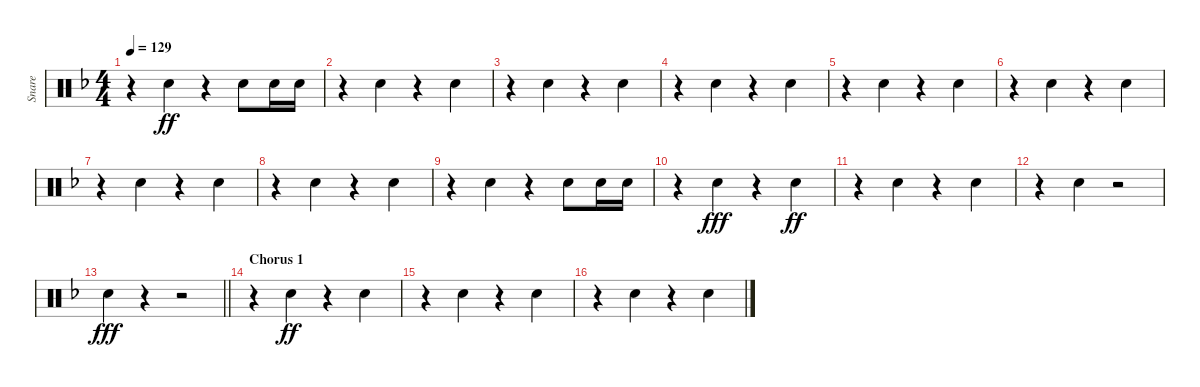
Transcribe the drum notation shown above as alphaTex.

\track ("Snare" "Snare") {instrument percussion}
\staff {score}
\articulation defaults
\ts (4 4)
\tempo 129
\clef neutral
\ks dminor
r.4{dy ff} "Electric Snare (hit)".4 r.4 "Electric Snare (hit)".8 "Electric Snare (hit)".16 "Electric Snare (hit)".16 |
r.4 "Electric Snare (hit)".4 r.4 "Electric Snare (hit)".4 |
r.4 "Electric Snare (hit)".4 r.4 "Electric Snare (hit)".4 |
r.4 "Electric Snare (hit)".4 r.4 "Electric Snare (hit)".4 |
r.4 "Electric Snare (hit)".4 r.4 "Electric Snare (hit)".4 |
r.4 "Electric Snare (hit)".4 r.4 "Electric Snare (hit)".4 |
r.4 "Electric Snare (hit)".4 r.4 "Electric Snare (hit)".4 |
r.4 "Electric Snare (hit)".4 r.4 "Electric Snare (hit)".4 |
r.4 "Electric Snare (hit)".4 r.4 "Electric Snare (hit)".8 "Electric Snare (hit)".16 "Electric Snare (hit)".16 |
r.4 "Electric Snare (hit)".4{dy fff} r.4 "Electric Snare (hit)".4{dy ff} |
r.4 "Electric Snare (hit)".4 r.4 "Electric Snare (hit)".4 |
r.4 "Electric Snare (hit)".4 r.2 |
\barLineRight lightlight "Electric Snare (hit)".4{dy fff}
r.4 r.2 |
\section ("" "Chorus 1")
r.4 "Electric Snare (hit)".4{dy ff} r.4 "Electric Snare (hit)".4 |
r.4 "Electric Snare (hit)".4 r.4 "Electric Snare (hit)".4 |
r.4 "Electric Snare (hit)".4 r.4 "Electric Snare (hit)".4
